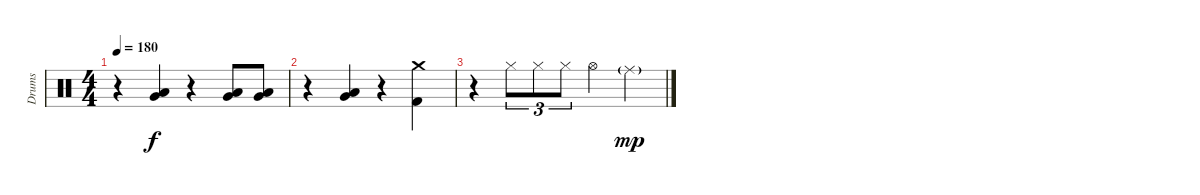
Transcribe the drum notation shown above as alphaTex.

\track ("Drums" "Drums") {instrument percussion}
\staff {score}
\articulation defaults
\ts (4 4)
\tempo 180
\clef neutral
\ks c
r.4{dy f} ("Low Tom (hit)" "Very Low Tom (hit)").4 r.4 ("Low Tom (hit)" "Very Low Tom (hit)").8 ("Low Tom (hit)" "Very Low Tom (hit)").8 |
r.4 ("Low Tom (hit)" "Very Low Tom (hit)").4 r.4 ("Crash medium (hit)" "Kick (hit) 2").4 |
r.4 "Hi-Hat (closed)".8{tu (3 2)} "Hi-Hat (closed)".8{tu (3 2)} "Hi-Hat (closed)".8{tu (3 2)} "Hi-Hat (open)".4 "Ride (middle)"{g}.4{dy mp}
